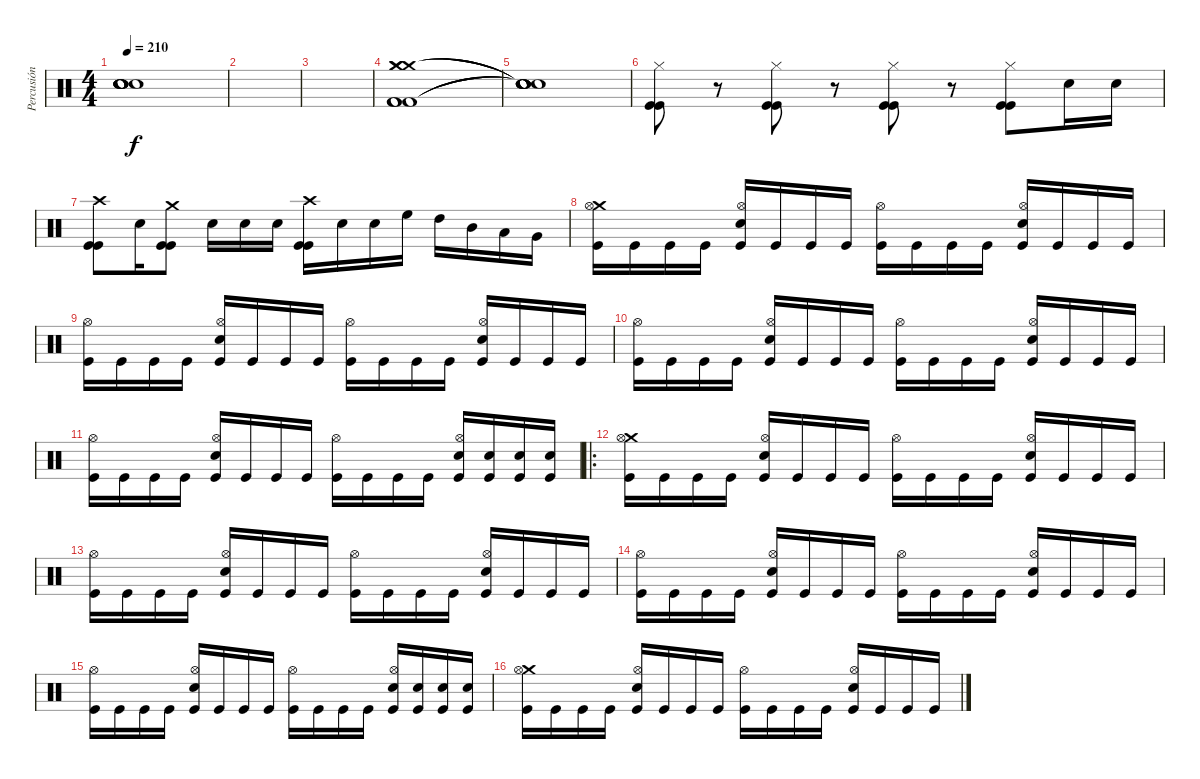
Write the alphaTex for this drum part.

\track ("Percusión" "Percusión") {instrument percussion}
\staff {score}
\articulation defaults
\ts (4 4)
\tempo 210
\clef neutral
\ks c
("Snare (hit)"{t} "Snare (hit)"{t} "Snare (hit)"{t} "Snare (hit)"{t} "Snare (hit)"{t} "Snare (hit)"{t}).1{dy f} |
|
|
("Crash medium (hit)" "Crash medium (hit)" "Crash medium (hit)" "Kick (hit) 2" "Kick (hit) 2" "Kick (hit) 2").1 |
("Snare (hit)"{t} "Snare (hit)"{t} "Snare (hit)"{t} "Snare (hit)"{t} "Snare (hit)"{t} "Snare (hit)"{t}).1 |
("Kick (hit)" "Kick (hit)" "Hi-Hat (closed)").8 r.8 ("Kick (hit)" "Kick (hit)" "Hi-Hat (closed)").8 r.8 ("Kick (hit)" "Kick (hit)" "Hi-Hat (closed)").8 r.8 ("Kick (hit)" "Kick (hit)" "Hi-Hat (closed)").8 "Snare (hit) 2".16 "Snare (hit) 2".16 |
("Kick (hit)" "Kick (hit)" "Crash high (hit)").8 "Snare (hit) 2".16 ("Kick (hit)" "Kick (hit)" "Crash medium (hit)").8 "Snare (hit) 2".16 "Snare (hit) 2".16 "Snare (hit) 2".16 ("Kick (hit)" "Kick (hit)" "Crash high (hit)").16 "Snare (hit) 2".16 "Snare (hit) 2".16 "High Floor Tom (hit)".16 "High Tom (hit)".16 "Mid Tom (hit)".16 "Low Tom (hit)".16 "Very Low Tom (hit)".16 |
("Kick (hit)" "Crash medium (hit)" "Hi-Hat (open)").16 "Kick (hit)".16 "Kick (hit)".16 "Kick (hit)".16 ("Kick (hit)" "Electric Snare (hit)" "Hi-Hat (open)").16 "Kick (hit)".16 "Kick (hit)".16 "Kick (hit)".16 ("Kick (hit)" "Hi-Hat (open)").16 "Kick (hit)".16 "Kick (hit)".16 "Kick (hit)".16 ("Kick (hit)" "Electric Snare (hit)" "Hi-Hat (open)").16 "Kick (hit)".16 "Kick (hit)".16 "Kick (hit)".16 |
("Kick (hit)" "Hi-Hat (open)").16 "Kick (hit)".16 "Kick (hit)".16 "Kick (hit)".16 ("Kick (hit)" "Electric Snare (hit)" "Hi-Hat (open)").16 "Kick (hit)".16 "Kick (hit)".16 "Kick (hit)".16 ("Kick (hit)" "Hi-Hat (open)").16 "Kick (hit)".16 "Kick (hit)".16 "Kick (hit)".16 ("Kick (hit)" "Electric Snare (hit)" "Hi-Hat (open)").16 "Kick (hit)".16 "Kick (hit)".16 "Kick (hit)".16 |
("Kick (hit)" "Hi-Hat (open)").16 "Kick (hit)".16 "Kick (hit)".16 "Kick (hit)".16 ("Kick (hit)" "Electric Snare (hit)" "Hi-Hat (open)").16 "Kick (hit)".16 "Kick (hit)".16 "Kick (hit)".16 ("Kick (hit)" "Hi-Hat (open)").16 "Kick (hit)".16 "Kick (hit)".16 "Kick (hit)".16 ("Kick (hit)" "Electric Snare (hit)" "Hi-Hat (open)").16 "Kick (hit)".16 "Kick (hit)".16 "Kick (hit)".16 |
("Kick (hit)" "Hi-Hat (open)").16 "Kick (hit)".16 "Kick (hit)".16 "Kick (hit)".16 ("Kick (hit)" "Electric Snare (hit)" "Hi-Hat (open)").16 "Kick (hit)".16 "Kick (hit)".16 "Kick (hit)".16 ("Kick (hit)" "Hi-Hat (open)").16 "Kick (hit)".16 "Kick (hit)".16 "Kick (hit)".16 ("Kick (hit)" "Electric Snare (hit)" "Hi-Hat (open)").16 ("Kick (hit)" "Snare (hit) 2").16 ("Kick (hit)" "Snare (hit) 2").16 ("Kick (hit)" "Snare (hit) 2").16 |
\ro
("Kick (hit)" "Crash medium (hit)" "Hi-Hat (open)").16 "Kick (hit)".16 "Kick (hit)".16 "Kick (hit)".16 ("Kick (hit)" "Electric Snare (hit)" "Hi-Hat (open)").16 "Kick (hit)".16 "Kick (hit)".16 "Kick (hit)".16 ("Kick (hit)" "Hi-Hat (open)").16 "Kick (hit)".16 "Kick (hit)".16 "Kick (hit)".16 ("Kick (hit)" "Electric Snare (hit)" "Hi-Hat (open)").16 "Kick (hit)".16 "Kick (hit)".16 "Kick (hit)".16 |
("Kick (hit)" "Hi-Hat (open)").16 "Kick (hit)".16 "Kick (hit)".16 "Kick (hit)".16 ("Kick (hit)" "Electric Snare (hit)" "Hi-Hat (open)").16 "Kick (hit)".16 "Kick (hit)".16 "Kick (hit)".16 ("Kick (hit)" "Hi-Hat (open)").16 "Kick (hit)".16 "Kick (hit)".16 "Kick (hit)".16 ("Kick (hit)" "Electric Snare (hit)" "Hi-Hat (open)").16 "Kick (hit)".16 "Kick (hit)".16 "Kick (hit)".16 |
("Kick (hit)" "Hi-Hat (open)").16 "Kick (hit)".16 "Kick (hit)".16 "Kick (hit)".16 ("Kick (hit)" "Electric Snare (hit)" "Hi-Hat (open)").16 "Kick (hit)".16 "Kick (hit)".16 "Kick (hit)".16 ("Kick (hit)" "Hi-Hat (open)").16 "Kick (hit)".16 "Kick (hit)".16 "Kick (hit)".16 ("Kick (hit)" "Electric Snare (hit)" "Hi-Hat (open)").16 "Kick (hit)".16 "Kick (hit)".16 "Kick (hit)".16 |
("Kick (hit)" "Hi-Hat (open)").16 "Kick (hit)".16 "Kick (hit)".16 "Kick (hit)".16 ("Kick (hit)" "Electric Snare (hit)" "Hi-Hat (open)").16 "Kick (hit)".16 "Kick (hit)".16 "Kick (hit)".16 ("Kick (hit)" "Hi-Hat (open)").16 "Kick (hit)".16 "Kick (hit)".16 "Kick (hit)".16 ("Kick (hit)" "Electric Snare (hit)" "Hi-Hat (open)").16 ("Kick (hit)" "Snare (hit) 2").16 ("Kick (hit)" "Snare (hit) 2").16 ("Kick (hit)" "Snare (hit) 2").16 |
("Kick (hit)" "Crash medium (hit)" "Hi-Hat (open)").16 "Kick (hit)".16 "Kick (hit)".16 "Kick (hit)".16 ("Kick (hit)" "Electric Snare (hit)" "Hi-Hat (open)").16 "Kick (hit)".16 "Kick (hit)".16 "Kick (hit)".16 ("Kick (hit)" "Hi-Hat (open)").16 "Kick (hit)".16 "Kick (hit)".16 "Kick (hit)".16 ("Kick (hit)" "Electric Snare (hit)" "Hi-Hat (open)").16 "Kick (hit)".16 "Kick (hit)".16 "Kick (hit)".16
